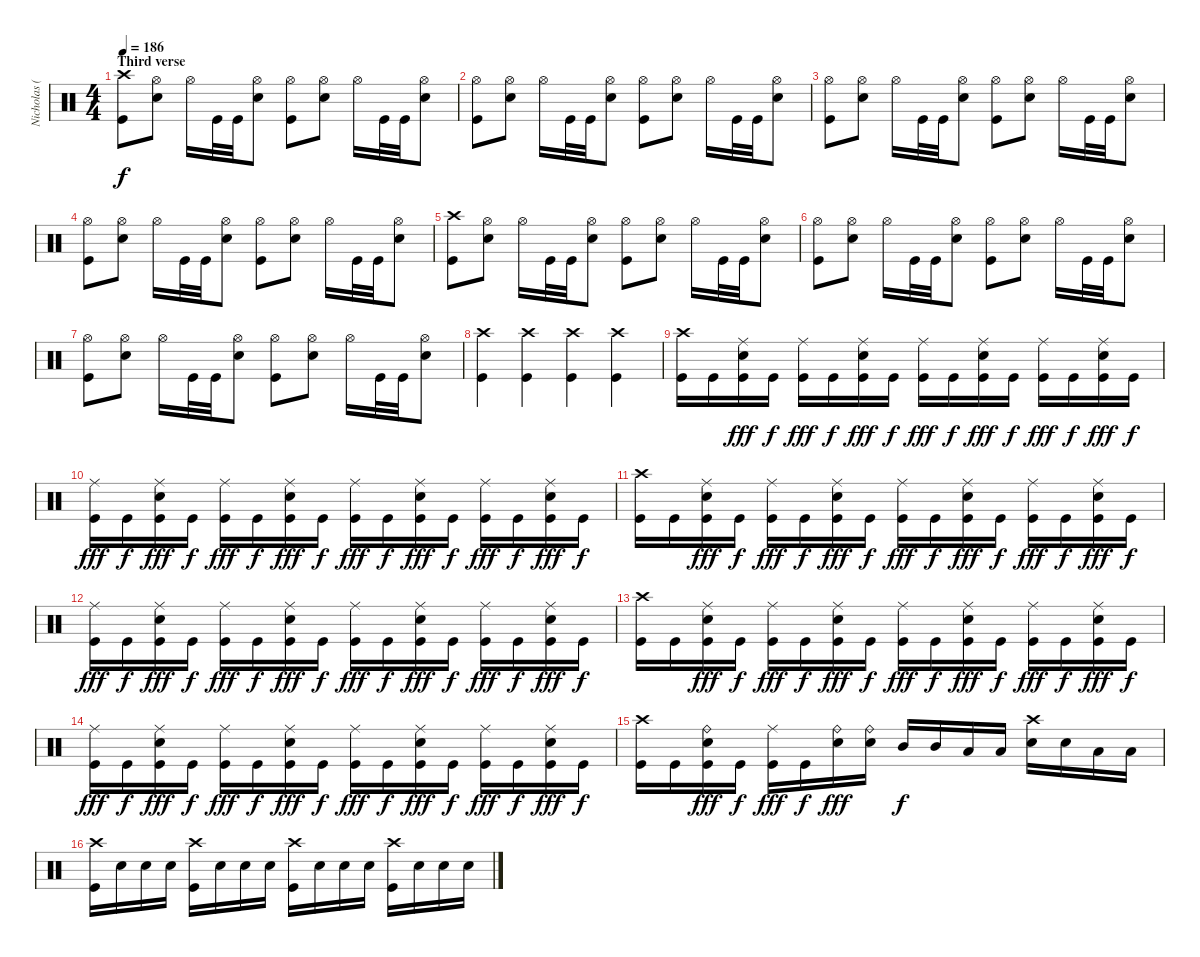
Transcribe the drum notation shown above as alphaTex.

\track ("Nicholas (Drums)" "Nicholas (") {instrument percussion}
\staff {score}
\articulation defaults
\ts (4 4)
\section ("" "Third verse")
\tempo 186
\clef neutral
\ks c
("Crash high (hit)" "Kick (hit)").8{dy f} ("Hi-Hat (open)" "Electric Snare (hit)").8 "Hi-Hat (open)".16 "Kick (hit)".32 "Kick (hit)".32 ("Hi-Hat (open)" "Electric Snare (hit)").8 ("Hi-Hat (open)" "Kick (hit)").8 ("Hi-Hat (open)" "Electric Snare (hit)").8 "Hi-Hat (open)".16 "Kick (hit)".32 "Kick (hit)".32 ("Hi-Hat (open)" "Electric Snare (hit)").8 |
("Hi-Hat (open)" "Kick (hit)").8 ("Hi-Hat (open)" "Electric Snare (hit)").8 "Hi-Hat (open)".16 "Kick (hit)".32 "Kick (hit)".32 ("Hi-Hat (open)" "Electric Snare (hit)").8 ("Hi-Hat (open)" "Kick (hit)").8 ("Hi-Hat (open)" "Electric Snare (hit)").8 "Hi-Hat (open)".16 "Kick (hit)".32 "Kick (hit)".32 ("Hi-Hat (open)" "Electric Snare (hit)").8 |
("Hi-Hat (open)" "Kick (hit)").8 ("Hi-Hat (open)" "Electric Snare (hit)").8 "Hi-Hat (open)".16 "Kick (hit)".32 "Kick (hit)".32 ("Hi-Hat (open)" "Electric Snare (hit)").8 ("Hi-Hat (open)" "Kick (hit)").8 ("Hi-Hat (open)" "Electric Snare (hit)").8 "Hi-Hat (open)".16 "Kick (hit)".32 "Kick (hit)".32 ("Hi-Hat (open)" "Electric Snare (hit)").8 |
("Hi-Hat (open)" "Kick (hit)").8 ("Hi-Hat (open)" "Electric Snare (hit)").8 "Hi-Hat (open)".16 "Kick (hit)".32 "Kick (hit)".32 ("Hi-Hat (open)" "Electric Snare (hit)").8 ("Hi-Hat (open)" "Kick (hit)").8 ("Hi-Hat (open)" "Electric Snare (hit)").8 "Hi-Hat (open)".16 "Kick (hit)".32 "Kick (hit)".32 ("Hi-Hat (open)" "Electric Snare (hit)").8 |
("Crash high (hit)" "Kick (hit)").8 ("Hi-Hat (open)" "Electric Snare (hit)").8 "Hi-Hat (open)".16 "Kick (hit)".32 "Kick (hit)".32 ("Hi-Hat (open)" "Electric Snare (hit)").8 ("Hi-Hat (open)" "Kick (hit)").8 ("Hi-Hat (open)" "Electric Snare (hit)").8 "Hi-Hat (open)".16 "Kick (hit)".32 "Kick (hit)".32 ("Hi-Hat (open)" "Electric Snare (hit)").8 |
("Hi-Hat (open)" "Kick (hit)").8 ("Hi-Hat (open)" "Electric Snare (hit)").8 "Hi-Hat (open)".16 "Kick (hit)".32 "Kick (hit)".32 ("Hi-Hat (open)" "Electric Snare (hit)").8 ("Hi-Hat (open)" "Kick (hit)").8 ("Hi-Hat (open)" "Electric Snare (hit)").8 "Hi-Hat (open)".16 "Kick (hit)".32 "Kick (hit)".32 ("Hi-Hat (open)" "Electric Snare (hit)").8 |
("Hi-Hat (open)" "Kick (hit)").8 ("Hi-Hat (open)" "Electric Snare (hit)").8 "Hi-Hat (open)".16 "Kick (hit)".32 "Kick (hit)".32 ("Hi-Hat (open)" "Electric Snare (hit)").8 ("Hi-Hat (open)" "Kick (hit)").8 ("Hi-Hat (open)" "Electric Snare (hit)").8 "Hi-Hat (open)".16 "Kick (hit)".32 "Kick (hit)".32 ("Hi-Hat (open)" "Electric Snare (hit)").8 |
("Crash high (hit)" "Kick (hit)").4 ("Crash high (hit)" "Kick (hit)").4 ("Crash high (hit)" "Kick (hit)").4 ("Crash high (hit)" "Kick (hit)").4 |
("Crash high (hit)" "Kick (hit)").16 "Kick (hit)".16 ("Ride (middle)" "Electric Snare (hit)" "Kick (hit)").16{dy fff} "Kick (hit)".16{dy f} ("Ride (middle)" "Kick (hit)").16{dy fff} "Kick (hit)".16{dy f} ("Ride (middle)" "Electric Snare (hit)" "Kick (hit)").16{dy fff} "Kick (hit)".16{dy f} ("Ride (middle)" "Kick (hit)").16{dy fff} "Kick (hit)".16{dy f} ("Ride (middle)" "Electric Snare (hit)" "Kick (hit)").16{dy fff} "Kick (hit)".16{dy f} ("Ride (middle)" "Kick (hit)").16{dy fff} "Kick (hit)".16{dy f} ("Ride (middle)" "Electric Snare (hit)" "Kick (hit)").16{dy fff} "Kick (hit)".16{dy f} |
("Ride (middle)" "Kick (hit)").16{dy fff} "Kick (hit)".16{dy f} ("Ride (middle)" "Electric Snare (hit)" "Kick (hit)").16{dy fff} "Kick (hit)".16{dy f} ("Ride (middle)" "Kick (hit)").16{dy fff} "Kick (hit)".16{dy f} ("Ride (middle)" "Electric Snare (hit)" "Kick (hit)").16{dy fff} "Kick (hit)".16{dy f} ("Ride (middle)" "Kick (hit)").16{dy fff} "Kick (hit)".16{dy f} ("Ride (middle)" "Electric Snare (hit)" "Kick (hit)").16{dy fff} "Kick (hit)".16{dy f} ("Ride (middle)" "Kick (hit)").16{dy fff} "Kick (hit)".16{dy f} ("Ride (middle)" "Electric Snare (hit)" "Kick (hit)").16{dy fff} "Kick (hit)".16{dy f} |
("Crash high (hit)" "Kick (hit)").16 "Kick (hit)".16 ("Ride (middle)" "Electric Snare (hit)" "Kick (hit)").16{dy fff} "Kick (hit)".16{dy f} ("Ride (middle)" "Kick (hit)").16{dy fff} "Kick (hit)".16{dy f} ("Ride (middle)" "Electric Snare (hit)" "Kick (hit)").16{dy fff} "Kick (hit)".16{dy f} ("Ride (middle)" "Kick (hit)").16{dy fff} "Kick (hit)".16{dy f} ("Ride (middle)" "Electric Snare (hit)" "Kick (hit)").16{dy fff} "Kick (hit)".16{dy f} ("Ride (middle)" "Kick (hit)").16{dy fff} "Kick (hit)".16{dy f} ("Ride (middle)" "Electric Snare (hit)" "Kick (hit)").16{dy fff} "Kick (hit)".16{dy f} |
("Ride (middle)" "Kick (hit)").16{dy fff} "Kick (hit)".16{dy f} ("Ride (middle)" "Electric Snare (hit)" "Kick (hit)").16{dy fff} "Kick (hit)".16{dy f} ("Ride (middle)" "Kick (hit)").16{dy fff} "Kick (hit)".16{dy f} ("Ride (middle)" "Electric Snare (hit)" "Kick (hit)").16{dy fff} "Kick (hit)".16{dy f} ("Ride (middle)" "Kick (hit)").16{dy fff} "Kick (hit)".16{dy f} ("Ride (middle)" "Electric Snare (hit)" "Kick (hit)").16{dy fff} "Kick (hit)".16{dy f} ("Ride (middle)" "Kick (hit)").16{dy fff} "Kick (hit)".16{dy f} ("Ride (middle)" "Electric Snare (hit)" "Kick (hit)").16{dy fff} "Kick (hit)".16{dy f} |
("Crash high (hit)" "Kick (hit)").16 "Kick (hit)".16 ("Ride (middle)" "Electric Snare (hit)" "Kick (hit)").16{dy fff} "Kick (hit)".16{dy f} ("Ride (middle)" "Kick (hit)").16{dy fff} "Kick (hit)".16{dy f} ("Ride (middle)" "Electric Snare (hit)" "Kick (hit)").16{dy fff} "Kick (hit)".16{dy f} ("Ride (middle)" "Kick (hit)").16{dy fff} "Kick (hit)".16{dy f} ("Ride (middle)" "Electric Snare (hit)" "Kick (hit)").16{dy fff} "Kick (hit)".16{dy f} ("Ride (middle)" "Kick (hit)").16{dy fff} "Kick (hit)".16{dy f} ("Ride (middle)" "Electric Snare (hit)" "Kick (hit)").16{dy fff} "Kick (hit)".16{dy f} |
("Ride (middle)" "Kick (hit)").16{dy fff} "Kick (hit)".16{dy f} ("Ride (middle)" "Electric Snare (hit)" "Kick (hit)").16{dy fff} "Kick (hit)".16{dy f} ("Ride (middle)" "Kick (hit)").16{dy fff} "Kick (hit)".16{dy f} ("Ride (middle)" "Electric Snare (hit)" "Kick (hit)").16{dy fff} "Kick (hit)".16{dy f} ("Ride (middle)" "Kick (hit)").16{dy fff} "Kick (hit)".16{dy f} ("Ride (middle)" "Electric Snare (hit)" "Kick (hit)").16{dy fff} "Kick (hit)".16{dy f} ("Ride (middle)" "Kick (hit)").16{dy fff} "Kick (hit)".16{dy f} ("Ride (middle)" "Electric Snare (hit)" "Kick (hit)").16{dy fff} "Kick (hit)".16{dy f} |
("Crash high (hit)" "Kick (hit)").16 "Kick (hit)".16 ("Ride (bell)" "Electric Snare (hit)" "Kick (hit)").16{dy fff} "Kick (hit)".16{dy f} ("Ride (middle)" "Kick (hit)").16{dy fff} "Kick (hit)".16{dy f} ("Ride (bell)" "Electric Snare (hit)").16{dy fff} ("Ride (bell)" "Electric Snare (hit)").16 "Mid Tom (hit)".16{dy f} "Mid Tom (hit)".16 "Low Tom (hit)".16 "Low Tom (hit)".16 ("Crash high (hit)" "Electric Snare (hit)").16 "Electric Snare (hit)".16 "Low Tom (hit)".16 "Low Tom (hit)".16 |
("Crash high (hit)" "Kick (hit)").16 "Electric Snare (hit)".16 "Electric Snare (hit)".16 "Electric Snare (hit)".16 ("Crash high (hit)" "Kick (hit)").16 "Electric Snare (hit)".16 "Electric Snare (hit)".16 "Electric Snare (hit)".16 ("Crash high (hit)" "Kick (hit)").16 "Electric Snare (hit)".16 "Electric Snare (hit)".16 "Electric Snare (hit)".16 ("Crash high (hit)" "Kick (hit)").16 "Electric Snare (hit)".16 "Electric Snare (hit)".16 "Electric Snare (hit)".16
